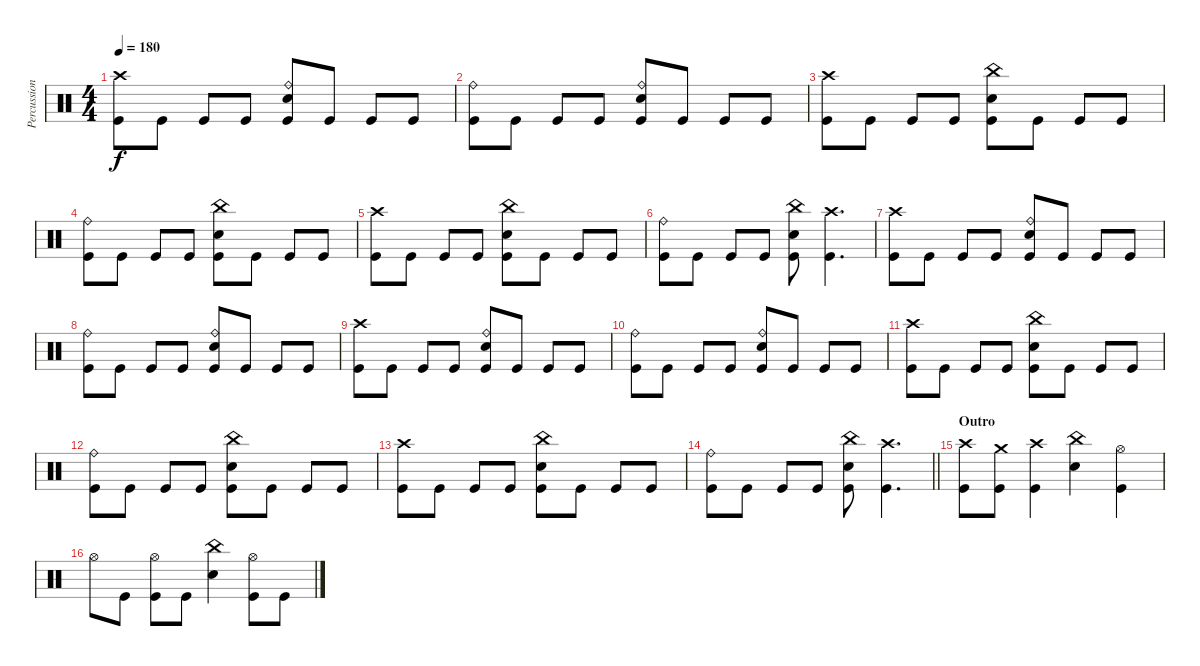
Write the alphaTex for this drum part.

\track ("Percussion" "Percussion") {instrument percussion}
\staff {score}
\articulation defaults
\ts (4 4)
\tempo 180
\clef neutral
\ks c
("Crash high (hit)" "Kick (hit)").8{dy f} "Kick (hit)".8 "Kick (hit)".8 "Kick (hit)".8 ("Ride (bell)" "Electric Snare (hit)" "Kick (hit)").8 "Kick (hit)".8 "Kick (hit)".8 "Kick (hit)".8 |
("Ride (bell)" "Kick (hit)").8 "Kick (hit)".8 "Kick (hit)".8 "Kick (hit)".8 ("Ride (bell)" "Electric Snare (hit)" "Kick (hit)").8 "Kick (hit)".8 "Kick (hit)".8 "Kick (hit)".8 |
("Crash high (hit)" "Kick (hit)").8 "Kick (hit)".8 "Kick (hit)".8 "Kick (hit)".8 ("China (hit)" "Electric Snare (hit)" "Kick (hit)").8 "Kick (hit)".8 "Kick (hit)".8 "Kick (hit)".8 |
("Ride (bell)" "Kick (hit)").8 "Kick (hit)".8 "Kick (hit)".8 "Kick (hit)".8 ("China (hit)" "Electric Snare (hit)" "Kick (hit)").8 "Kick (hit)".8 "Kick (hit)".8 "Kick (hit)".8 |
("Crash high (hit)" "Kick (hit)").8 "Kick (hit)".8 "Kick (hit)".8 "Kick (hit)".8 ("China (hit)" "Electric Snare (hit)" "Kick (hit)").8 "Kick (hit)".8 "Kick (hit)".8 "Kick (hit)".8 |
("Ride (bell)" "Kick (hit)").8 "Kick (hit)".8 "Kick (hit)".8 "Kick (hit)".8 ("China (hit)" "Electric Snare (hit)" "Kick (hit)").8 ("Crash high (hit)" "Kick (hit)").4{d} |
("Crash high (hit)" "Kick (hit)").8 "Kick (hit)".8 "Kick (hit)".8 "Kick (hit)".8 ("Ride (bell)" "Electric Snare (hit)" "Kick (hit)").8 "Kick (hit)".8 "Kick (hit)".8 "Kick (hit)".8 |
("Ride (bell)" "Kick (hit)").8 "Kick (hit)".8 "Kick (hit)".8 "Kick (hit)".8 ("Ride (bell)" "Electric Snare (hit)" "Kick (hit)").8 "Kick (hit)".8 "Kick (hit)".8 "Kick (hit)".8 |
("Crash high (hit)" "Kick (hit)").8 "Kick (hit)".8 "Kick (hit)".8 "Kick (hit)".8 ("Ride (bell)" "Electric Snare (hit)" "Kick (hit)").8 "Kick (hit)".8 "Kick (hit)".8 "Kick (hit)".8 |
("Ride (bell)" "Kick (hit)").8 "Kick (hit)".8 "Kick (hit)".8 "Kick (hit)".8 ("Ride (bell)" "Electric Snare (hit)" "Kick (hit)").8 "Kick (hit)".8 "Kick (hit)".8 "Kick (hit)".8 |
("Crash high (hit)" "Kick (hit)").8 "Kick (hit)".8 "Kick (hit)".8 "Kick (hit)".8 ("China (hit)" "Electric Snare (hit)" "Kick (hit)").8 "Kick (hit)".8 "Kick (hit)".8 "Kick (hit)".8 |
("Ride (bell)" "Kick (hit)").8 "Kick (hit)".8 "Kick (hit)".8 "Kick (hit)".8 ("China (hit)" "Electric Snare (hit)" "Kick (hit)").8 "Kick (hit)".8 "Kick (hit)".8 "Kick (hit)".8 |
("Crash high (hit)" "Kick (hit)").8 "Kick (hit)".8 "Kick (hit)".8 "Kick (hit)".8 ("China (hit)" "Electric Snare (hit)" "Kick (hit)").8 "Kick (hit)".8 "Kick (hit)".8 "Kick (hit)".8 |
\barLineRight lightlight
("Ride (bell)" "Kick (hit)").8 "Kick (hit)".8 "Kick (hit)".8 "Kick (hit)".8 ("China (hit)" "Electric Snare (hit)" "Kick (hit)").8 ("Crash high (hit)" "Kick (hit)").4{d} |
\section ("" "Outro")
("Crash high (hit)" "Kick (hit)").8 ("Crash medium (hit)" "Kick (hit)").8 ("Crash high (hit)" "Kick (hit)").4 ("China (hit)" "Electric Snare (hit)").4 ("Hi-Hat (open)" "Kick (hit)").4 |
"Hi-Hat (open)".8 "Kick (hit)".8 ("Hi-Hat (open)" "Kick (hit)").8 "Kick (hit)".8 ("China (hit)" "Electric Snare (hit)").4 ("Hi-Hat (open)" "Kick (hit)").8 "Kick (hit)".8
